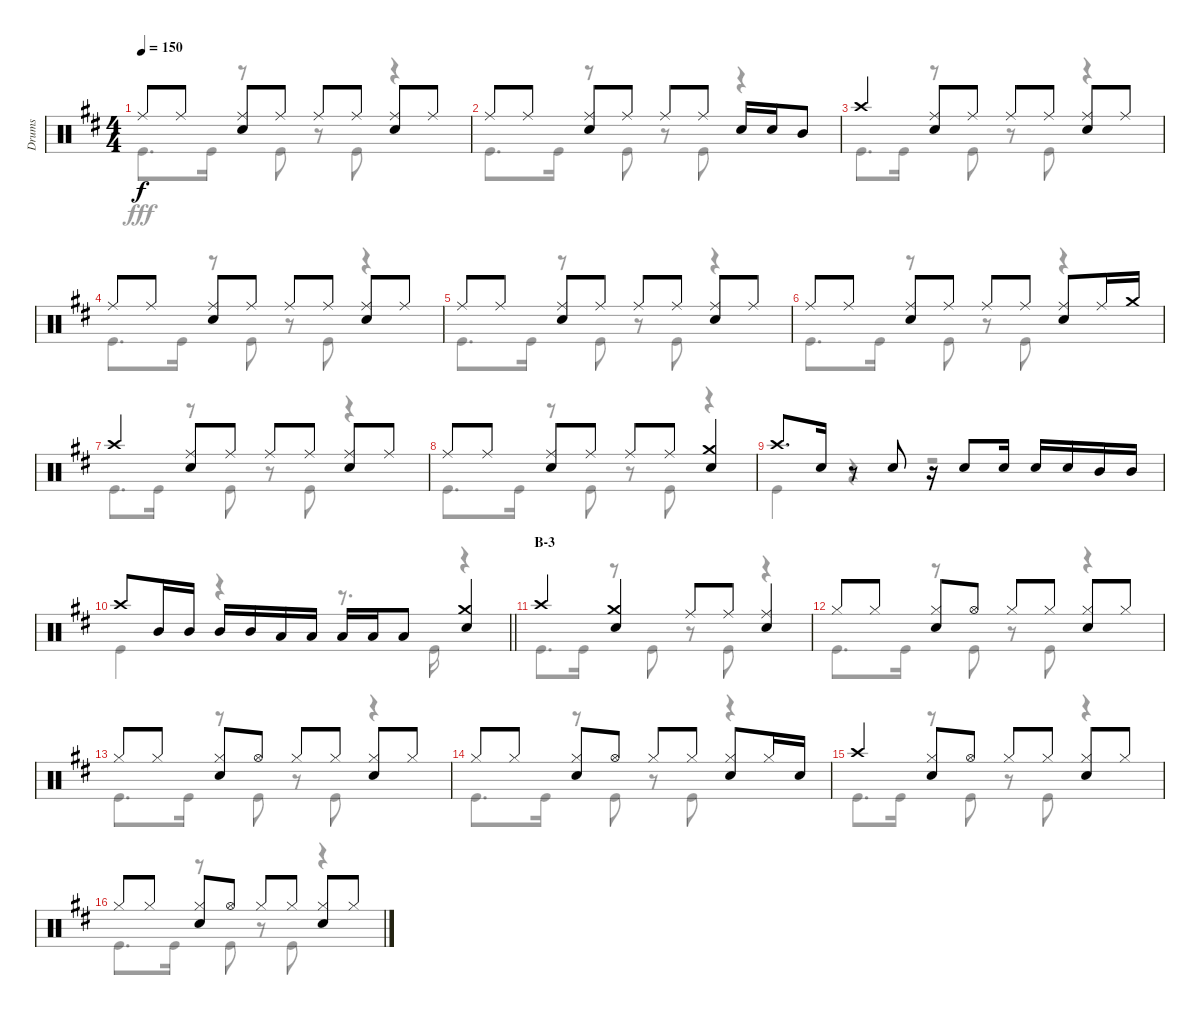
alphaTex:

\track ("Drums" "Drums") {instrument percussion}
\staff {score}
\articulation defaults
\voice
\ts (4 4)
\tempo 150
\clef neutral
\ks d "Ride (middle)".8{dy f} "Ride (middle)".8
("Ride (middle)" "Snare (hit) 2").8 "Ride (middle)".8 "Ride (middle)".8 "Ride (middle)".8 ("Ride (middle)" "Snare (hit) 2").8 "Ride (middle)".8 |
"Ride (middle)".8 "Ride (middle)".8 ("Ride (middle)" "Snare (hit) 2").8 "Ride (middle)".8 "Ride (middle)".8 "Ride (middle)".8 "Snare (hit) 2".16 "Snare (hit) 2".16 "Mid Tom (hit)".8 |
"Crash high (hit)".4 ("Ride (middle)" "Snare (hit) 2").8 "Ride (middle)".8 "Ride (middle)".8 "Ride (middle)".8 ("Ride (middle)" "Snare (hit) 2").8 "Ride (middle)".8 |
"Ride (middle)".8 "Ride (middle)".8 ("Ride (middle)" "Snare (hit) 2").8 "Ride (middle)".8 "Ride (middle)".8 "Ride (middle)".8 ("Ride (middle)" "Snare (hit) 2").8 "Ride (middle)".8 |
"Ride (middle)".8 "Ride (middle)".8 ("Ride (middle)" "Snare (hit) 2").8 "Ride (middle)".8 "Ride (middle)".8 "Ride (middle)".8 ("Ride (middle)" "Snare (hit) 2").8 "Ride (middle)".8 |
"Ride (middle)".8 "Ride (middle)".8 ("Ride (middle)" "Snare (hit) 2").8 "Ride (middle)".8 "Ride (middle)".8 "Ride (middle)".8 ("Ride (middle)" "Snare (hit) 2").8 "Ride (middle)".16 "Crash medium (hit)".16 |
"Crash high (hit)".4 ("Ride (middle)" "Snare (hit) 2").8 "Ride (middle)".8 "Ride (middle)".8 "Ride (middle)".8 ("Ride (middle)" "Snare (hit) 2").8 "Ride (middle)".8 |
"Ride (middle)".8 "Ride (middle)".8 ("Ride (middle)" "Snare (hit) 2").8 "Ride (middle)".8 "Ride (middle)".8 "Ride (middle)".8 ("Crash medium (hit)" "Snare (hit) 2").4 |
"Crash high (hit)".8{d} "Snare (hit) 2".16 r.8 "Snare (hit) 2".8 r.16 "Snare (hit) 2".8 "Snare (hit) 2".16 "Snare (hit) 2".16 "Snare (hit) 2".16 "Mid Tom (hit)".16 "Mid Tom (hit)".16 |
\barLineRight lightlight "Crash high (hit)".8 "Mid Tom (hit)".16 "Mid Tom (hit)".16 "Mid Tom (hit)".16 "Mid Tom (hit)".16 "Low Tom (hit)".16 "Low Tom (hit)".16 "Low Tom (hit)".16 "Low Tom (hit)".16 "Low Tom (hit)".8
("Crash medium (hit)" "Snare (hit) 2").4 |
\section ("" "B-3")
"Crash high (hit)".4 ("Crash medium (hit)" "Snare (hit) 2").4 "Ride (middle)".8 "Ride (middle)".8 ("Ride (middle)" "Snare (hit) 2").4 |
"Hi-Hat (closed)".8 "Hi-Hat (closed)".8 ("Hi-Hat (closed)" "Snare (hit) 2").8 "Hi-Hat (open)".8 "Hi-Hat (closed)".8 "Hi-Hat (closed)".8 ("Hi-Hat (closed)" "Snare (hit) 2").8 "Hi-Hat (closed)".8 |
"Hi-Hat (closed)".8 "Hi-Hat (closed)".8 ("Hi-Hat (closed)" "Snare (hit) 2").8 "Hi-Hat (open)".8 "Hi-Hat (closed)".8 "Hi-Hat (closed)".8 ("Hi-Hat (closed)" "Snare (hit) 2").8 "Hi-Hat (closed)".8 |
"Hi-Hat (closed)".8 "Hi-Hat (closed)".8 ("Hi-Hat (closed)" "Snare (hit) 2").8 "Hi-Hat (open)".8 "Hi-Hat (closed)".8 "Hi-Hat (closed)".8 ("Hi-Hat (closed)" "Snare (hit) 2").8 "Hi-Hat (closed)".16 "Snare (hit) 2".16 |
"Crash high (hit)".4 ("Hi-Hat (closed)" "Snare (hit) 2").8 "Hi-Hat (open)".8 "Hi-Hat (closed)".8 "Hi-Hat (closed)".8 ("Hi-Hat (closed)" "Snare (hit) 2").8 "Hi-Hat (closed)".8 |
"Hi-Hat (closed)".8 "Hi-Hat (closed)".8 ("Hi-Hat (closed)" "Snare (hit) 2").8 "Hi-Hat (open)".8 "Hi-Hat (closed)".8 "Hi-Hat (closed)".8 ("Hi-Hat (closed)" "Snare (hit) 2").8 "Hi-Hat (closed)".8
\voice
\clef neutral
\ottava regular
\simile none
\ks d "Kick (hit)".8{d dy fff} "Kick (hit)".16
r.8 "Kick (hit)".8 r.8 "Kick (hit)".8 r.4 |
"Kick (hit)".8{d} "Kick (hit)".16 r.8 "Kick (hit)".8 r.8 "Kick (hit)".8 r.4 |
"Kick (hit)".8{d} "Kick (hit)".16 r.8 "Kick (hit)".8 r.8 "Kick (hit)".8 r.4 |
"Kick (hit)".8{d} "Kick (hit)".16 r.8 "Kick (hit)".8 r.8 "Kick (hit)".8 r.4 |
"Kick (hit)".8{d} "Kick (hit)".16 r.8 "Kick (hit)".8 r.8 "Kick (hit)".8 r.4 |
"Kick (hit)".8{d} "Kick (hit)".16 r.8 "Kick (hit)".8 r.8 "Kick (hit)".8 r.4 |
"Kick (hit)".8{d} "Kick (hit)".16 r.8 "Kick (hit)".8 r.8 "Kick (hit)".8 r.4 |
"Kick (hit)".8{d} "Kick (hit)".16 r.8 "Kick (hit)".8 r.8 "Kick (hit)".8 r.4 |
"Kick (hit)".4 r.4 r.2 |
\barLineRight lightlight "Kick (hit)".4
r.4 r.8{d} "Kick (hit)".16 r.4 |
"Kick (hit)".8{d} "Kick (hit)".16 r.8 "Kick (hit)".8 r.8 "Kick (hit)".8 r.4 |
"Kick (hit)".8{d} "Kick (hit)".16 r.8 "Kick (hit)".8 r.8 "Kick (hit)".8 r.4 |
"Kick (hit)".8{d} "Kick (hit)".16 r.8 "Kick (hit)".8 r.8 "Kick (hit)".8 r.4 |
"Kick (hit)".8{d} "Kick (hit)".16 r.8 "Kick (hit)".8 r.8 "Kick (hit)".8 r.4 |
"Kick (hit)".8{d} "Kick (hit)".16 r.8 "Kick (hit)".8 r.8 "Kick (hit)".8 r.4 |
"Kick (hit)".8{d} "Kick (hit)".16 r.8 "Kick (hit)".8 r.8 "Kick (hit)".8 r.4
